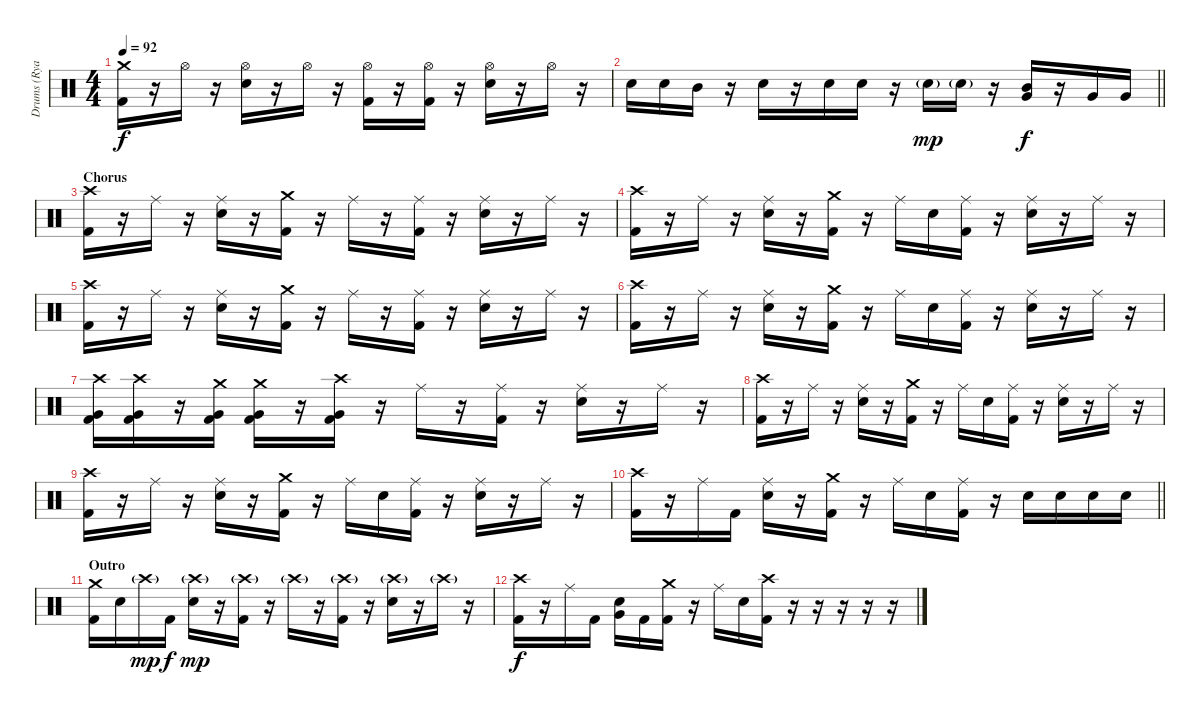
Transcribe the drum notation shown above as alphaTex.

\track ("Drums (Ryan Vikedal)" "Drums (Rya") {instrument percussion}
\staff {score}
\articulation defaults
\ts (4 4)
\tempo 92
\clef neutral
\ks c
("Crash medium (hit)" "Kick (hit) 2").16{dy f} r.16 "Hi-Hat (open)".16 r.16 ("Hi-Hat (open)" "Snare (hit) 2").16 r.16 "Hi-Hat (open)".16 r.16 ("Hi-Hat (open)" "Kick (hit) 2").16 r.16 ("Hi-Hat (open)" "Kick (hit) 2").16 r.16 ("Hi-Hat (open)" "Snare (hit) 2").16 r.16 "Hi-Hat (open)".16 r.16 |
\barLineRight lightlight "Snare (hit) 2".16 "Snare (hit) 2".16 "Mid Tom (hit)".16
r.16 "Snare (hit) 2".16 r.16 "Snare (hit) 2".16 "Snare (hit) 2".16 r.16 "Snare (hit) 2"{g}.16{dy mp} "Snare (hit) 2"{g}.16 r.16 ("Mid Tom (hit)" "Very Low Tom (hit)").16{dy f} r.16 "Very Low Tom (hit)".16 "Very Low Tom (hit)".16 |
\section ("" "Chorus")
("Crash high (hit)" "Kick (hit) 2").16 r.16 "Ride (middle)".16 r.16 ("Ride (middle)" "Snare (hit) 2").16 r.16 ("Crash medium (hit)" "Kick (hit) 2").16 r.16 "Ride (middle)".16 r.16 ("Ride (middle)" "Kick (hit) 2").16 r.16 ("Ride (middle)" "Snare (hit) 2").16 r.16 "Ride (middle)".16 r.16 |
("Crash high (hit)" "Kick (hit) 2").16 r.16 "Ride (middle)".16 r.16 ("Ride (middle)" "Snare (hit) 2").16 r.16 ("Crash medium (hit)" "Kick (hit) 2").16 r.16 "Ride (middle)".16 "Snare (hit) 2".16 ("Ride (middle)" "Kick (hit) 2").16 r.16 ("Ride (middle)" "Snare (hit) 2").16 r.16 "Ride (middle)".16 r.16 |
("Crash high (hit)" "Kick (hit) 2").16 r.16 "Ride (middle)".16 r.16 ("Ride (middle)" "Snare (hit) 2").16 r.16 ("Crash medium (hit)" "Kick (hit) 2").16 r.16 "Ride (middle)".16 r.16 ("Ride (middle)" "Kick (hit) 2").16 r.16 ("Ride (middle)" "Snare (hit) 2").16 r.16 "Ride (middle)".16 r.16 |
("Crash high (hit)" "Kick (hit) 2").16 r.16 "Ride (middle)".16 r.16 ("Ride (middle)" "Snare (hit) 2").16 r.16 ("Crash medium (hit)" "Kick (hit) 2").16 r.16 "Ride (middle)".16 "Snare (hit) 2".16 ("Ride (middle)" "Kick (hit) 2").16 r.16 ("Ride (middle)" "Snare (hit) 2").16 r.16 "Ride (middle)".16 r.16 |
("Crash high (hit)" "Very Low Tom (hit)" "Kick (hit) 2").16 ("Crash high (hit)" "Very Low Tom (hit)" "Kick (hit) 2").16 r.16 ("Crash medium (hit)" "Very Low Tom (hit)" "Kick (hit) 2").16 ("Crash medium (hit)" "Very Low Tom (hit)" "Kick (hit) 2").16 r.16 ("Crash high (hit)" "Very Low Tom (hit)" "Kick (hit) 2").16 r.16 "Ride (middle)".16 r.16 ("Ride (middle)" "Kick (hit) 2").16 r.16 ("Ride (middle)" "Snare (hit) 2").16 r.16 "Ride (middle)".16 r.16 |
("Crash high (hit)" "Kick (hit) 2").16 r.16 "Ride (middle)".16 r.16 ("Ride (middle)" "Snare (hit) 2").16 r.16 ("Crash medium (hit)" "Kick (hit) 2").16 r.16 "Ride (middle)".16 "Snare (hit) 2".16 ("Ride (middle)" "Kick (hit) 2").16 r.16 ("Ride (middle)" "Snare (hit) 2").16 r.16 "Ride (middle)".16 r.16 |
("Crash high (hit)" "Kick (hit) 2").16 r.16 "Ride (middle)".16 r.16 ("Ride (middle)" "Snare (hit) 2").16 r.16 ("Crash medium (hit)" "Kick (hit) 2").16 r.16 "Ride (middle)".16 "Snare (hit) 2".16 ("Ride (middle)" "Kick (hit) 2").16 r.16 ("Ride (middle)" "Snare (hit) 2").16 r.16 "Ride (middle)".16 r.16 |
\barLineRight lightlight
("Crash high (hit)" "Kick (hit) 2").16 r.16 "Ride (middle)".16 "Kick (hit) 2".16 ("Ride (middle)" "Snare (hit) 2").16 r.16 ("Crash medium (hit)" "Kick (hit) 2").16 r.16 "Ride (middle)".16 "Snare (hit) 2".16 ("Ride (middle)" "Kick (hit) 2").16 r.16 "Snare (hit) 2".16 "Snare (hit) 2".16 "Snare (hit) 2".16 "Snare (hit) 2".16 |
\section ("" "Outro")
("Crash medium (hit)" "Kick (hit) 2").16 "Snare (hit) 2".16 "Crash high (hit)"{g}.16{dy mp} "Kick (hit) 2".16{dy f} ("Crash high (hit)"{g} "Snare (hit) 2").16{dy mp} r.16 ("Crash high (hit)"{g} "Kick (hit) 2").16 r.16 "Crash high (hit)"{g}.16 r.16 ("Crash high (hit)"{g} "Kick (hit) 2").16 r.16 ("Crash high (hit)"{g} "Snare (hit) 2").16 r.16 "Crash high (hit)"{g}.16 r.16 |
("Crash high (hit)" "Kick (hit) 2").16{dy f} r.16 "Ride (middle)".16 "Kick (hit) 2".16 ("Snare (hit) 2" "Very Low Tom (hit)").16 "Kick (hit) 2".16 ("Crash medium (hit)" "Kick (hit) 2").16 r.16 "Ride (middle)".16 "Snare (hit) 2".16 ("Crash high (hit)" "Kick (hit) 2").16 r.16 r.16 r.16 r.16 r.16
